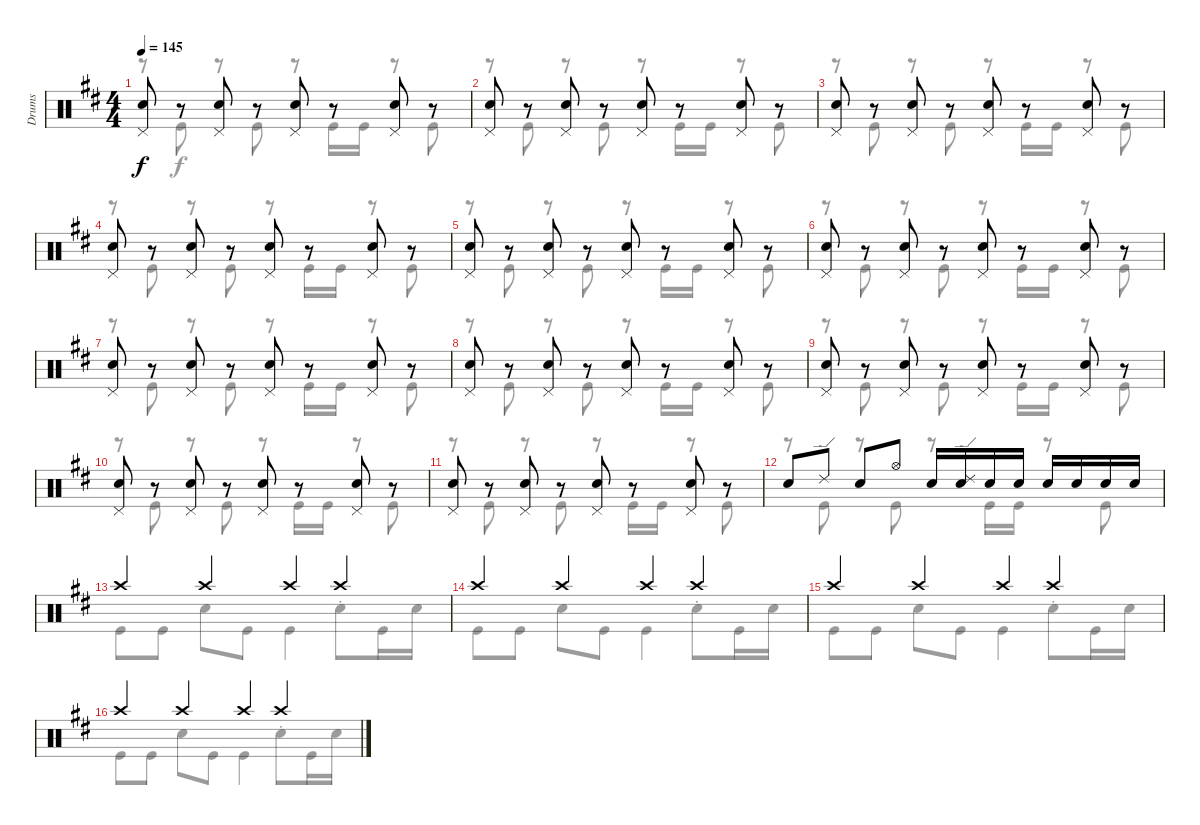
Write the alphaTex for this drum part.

\track ("Drums" "Drums") {instrument percussion}
\staff {score}
\articulation defaults
\voice
\ts (4 4)
\tempo 145
\clef neutral
\ks d
("Pedal Hi-Hat (hit)" "Electric Snare (hit)").8{dy f} r.8 ("Pedal Hi-Hat (hit)" "Electric Snare (hit)").8 r.8 ("Pedal Hi-Hat (hit)" "Electric Snare (hit)").8 r.8 ("Pedal Hi-Hat (hit)" "Electric Snare (hit)").8 r.8 |
("Pedal Hi-Hat (hit)" "Electric Snare (hit)").8 r.8 ("Pedal Hi-Hat (hit)" "Electric Snare (hit)").8 r.8 ("Pedal Hi-Hat (hit)" "Electric Snare (hit)").8 r.8 ("Pedal Hi-Hat (hit)" "Electric Snare (hit)").8 r.8 |
("Pedal Hi-Hat (hit)" "Electric Snare (hit)").8 r.8 ("Pedal Hi-Hat (hit)" "Electric Snare (hit)").8 r.8 ("Pedal Hi-Hat (hit)" "Electric Snare (hit)").8 r.8 ("Pedal Hi-Hat (hit)" "Electric Snare (hit)").8 r.8 |
("Pedal Hi-Hat (hit)" "Electric Snare (hit)").8 r.8 ("Pedal Hi-Hat (hit)" "Electric Snare (hit)").8 r.8 ("Pedal Hi-Hat (hit)" "Electric Snare (hit)").8 r.8 ("Pedal Hi-Hat (hit)" "Electric Snare (hit)").8 r.8 |
("Pedal Hi-Hat (hit)" "Electric Snare (hit)").8 r.8 ("Pedal Hi-Hat (hit)" "Electric Snare (hit)").8 r.8 ("Pedal Hi-Hat (hit)" "Electric Snare (hit)").8 r.8 ("Pedal Hi-Hat (hit)" "Electric Snare (hit)").8 r.8 |
("Pedal Hi-Hat (hit)" "Electric Snare (hit)").8 r.8 ("Pedal Hi-Hat (hit)" "Electric Snare (hit)").8 r.8 ("Pedal Hi-Hat (hit)" "Electric Snare (hit)").8 r.8 ("Pedal Hi-Hat (hit)" "Electric Snare (hit)").8 r.8 |
("Pedal Hi-Hat (hit)" "Electric Snare (hit)").8 r.8 ("Pedal Hi-Hat (hit)" "Electric Snare (hit)").8 r.8 ("Pedal Hi-Hat (hit)" "Electric Snare (hit)").8 r.8 ("Pedal Hi-Hat (hit)" "Electric Snare (hit)").8 r.8 |
("Pedal Hi-Hat (hit)" "Electric Snare (hit)").8 r.8 ("Pedal Hi-Hat (hit)" "Electric Snare (hit)").8 r.8 ("Pedal Hi-Hat (hit)" "Electric Snare (hit)").8 r.8 ("Pedal Hi-Hat (hit)" "Electric Snare (hit)").8 r.8 |
("Pedal Hi-Hat (hit)" "Electric Snare (hit)").8 r.8 ("Pedal Hi-Hat (hit)" "Electric Snare (hit)").8 r.8 ("Pedal Hi-Hat (hit)" "Electric Snare (hit)").8 r.8 ("Pedal Hi-Hat (hit)" "Electric Snare (hit)").8 r.8 |
("Pedal Hi-Hat (hit)" "Electric Snare (hit)").8 r.8 ("Pedal Hi-Hat (hit)" "Electric Snare (hit)").8 r.8 ("Pedal Hi-Hat (hit)" "Electric Snare (hit)").8 r.8 ("Pedal Hi-Hat (hit)" "Electric Snare (hit)").8 r.8 |
("Pedal Hi-Hat (hit)" "Electric Snare (hit)").8 r.8 ("Pedal Hi-Hat (hit)" "Electric Snare (hit)").8 r.8 ("Pedal Hi-Hat (hit)" "Electric Snare (hit)").8 r.8 ("Pedal Hi-Hat (hit)" "Electric Snare (hit)").8 r.8 |
"Electric Snare (hit)".8 "Ride (edge) 2".8 "Electric Snare (hit)".8 "Hi-Hat (open)".8 "Electric Snare (hit)".16 ("Ride (edge) 2" "Electric Snare (hit)").16 "Electric Snare (hit)".16 "Electric Snare (hit)".16 "Electric Snare (hit)".16 "Electric Snare (hit)".16 "Electric Snare (hit)".16 "Electric Snare (hit)".16 |
"Crash high (hit)".4 "Crash high (hit)".4 "Crash high (hit)".4 "Crash high (hit)".4 |
"Crash high (hit)".4 "Crash high (hit)".4 "Crash high (hit)".4 "Crash high (hit)".4 |
"Crash high (hit)".4 "Crash high (hit)".4 "Crash high (hit)".4 "Crash high (hit)".4 |
"Crash high (hit)".4 "Crash high (hit)".4 "Crash high (hit)".4 "Crash high (hit)".4
\voice
\clef neutral
\ottava regular
\simile none
\ks d
r.8{dy f} "Kick (hit)".8 r.8 "Kick (hit)".8 r.8 "Kick (hit)".16 "Kick (hit)".16 r.8 "Kick (hit)".8 |
r.8 "Kick (hit)".8 r.8 "Kick (hit)".8 r.8 "Kick (hit)".16 "Kick (hit)".16 r.8 "Kick (hit)".8 |
r.8 "Kick (hit)".8 r.8 "Kick (hit)".8 r.8 "Kick (hit)".16 "Kick (hit)".16 r.8 "Kick (hit)".8 |
r.8 "Kick (hit)".8 r.8 "Kick (hit)".8 r.8 "Kick (hit)".16 "Kick (hit)".16 r.8 "Kick (hit)".8 |
r.8 "Kick (hit)".8 r.8 "Kick (hit)".8 r.8 "Kick (hit)".16 "Kick (hit)".16 r.8 "Kick (hit)".8 |
r.8 "Kick (hit)".8 r.8 "Kick (hit)".8 r.8 "Kick (hit)".16 "Kick (hit)".16 r.8 "Kick (hit)".8 |
r.8 "Kick (hit)".8 r.8 "Kick (hit)".8 r.8 "Kick (hit)".16 "Kick (hit)".16 r.8 "Kick (hit)".8 |
r.8 "Kick (hit)".8 r.8 "Kick (hit)".8 r.8 "Kick (hit)".16 "Kick (hit)".16 r.8 "Kick (hit)".8 |
r.8 "Kick (hit)".8 r.8 "Kick (hit)".8 r.8 "Kick (hit)".16 "Kick (hit)".16 r.8 "Kick (hit)".8 |
r.8 "Kick (hit)".8 r.8 "Kick (hit)".8 r.8 "Kick (hit)".16 "Kick (hit)".16 r.8 "Kick (hit)".8 |
r.8 "Kick (hit)".8 r.8 "Kick (hit)".8 r.8 "Kick (hit)".16 "Kick (hit)".16 r.8 "Kick (hit)".8 |
r.8 "Kick (hit)".8 r.8 "Kick (hit)".8 r.8 "Kick (hit)".16 "Kick (hit)".16 r.8 "Kick (hit)".8 |
"Kick (hit)".8 "Kick (hit)".8 "Electric Snare (hit)".8 "Kick (hit)".8 "Kick (hit)".4 "Electric Snare (hit)"{st}.8 "Kick (hit)".16 "Electric Snare (hit)".16 |
"Kick (hit)".8 "Kick (hit)".8 "Electric Snare (hit)".8 "Kick (hit)".8 "Kick (hit)".4 "Electric Snare (hit)"{st}.8 "Kick (hit)".16 "Electric Snare (hit)".16 |
"Kick (hit)".8 "Kick (hit)".8 "Electric Snare (hit)".8 "Kick (hit)".8 "Kick (hit)".4 "Electric Snare (hit)"{st}.8 "Kick (hit)".16 "Electric Snare (hit)".16 |
"Kick (hit)".8 "Kick (hit)".8 "Electric Snare (hit)".8 "Kick (hit)".8 "Kick (hit)".4 "Electric Snare (hit)"{st}.8 "Kick (hit)".16 "Electric Snare (hit)".16
